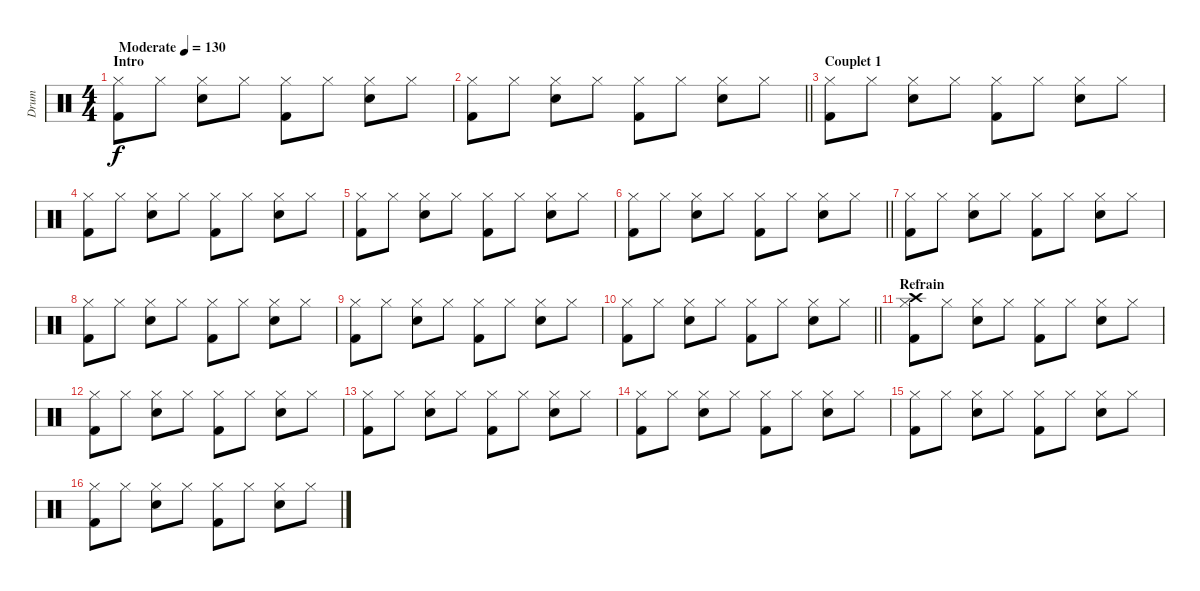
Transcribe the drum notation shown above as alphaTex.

\track ("Drum" "Drum") {instrument percussion}
\staff {score}
\articulation defaults
\ts (4 4)
\section ("" "Intro")
\tempo (130 "Moderate")
\clef neutral
\ks c
("Hi-Hat (closed)" "Kick (hit) 2").8{dy f} "Hi-Hat (closed)".8 ("Snare (hit) 2" "Hi-Hat (closed)").8 "Hi-Hat (closed)".8 ("Hi-Hat (closed)" "Kick (hit) 2").8 "Hi-Hat (closed)".8 ("Snare (hit) 2" "Hi-Hat (closed)").8 "Hi-Hat (closed)".8 |
\barLineRight lightlight
("Hi-Hat (closed)" "Kick (hit) 2").8 "Hi-Hat (closed)".8 ("Snare (hit) 2" "Hi-Hat (closed)").8 "Hi-Hat (closed)".8 ("Hi-Hat (closed)" "Kick (hit) 2").8 "Hi-Hat (closed)".8 ("Snare (hit) 2" "Hi-Hat (closed)").8 "Hi-Hat (closed)".8 |
\section ("" "Couplet 1")
("Hi-Hat (closed)" "Kick (hit) 2").8 "Hi-Hat (closed)".8 ("Snare (hit) 2" "Hi-Hat (closed)").8 "Hi-Hat (closed)".8 ("Hi-Hat (closed)" "Kick (hit) 2").8 "Hi-Hat (closed)".8 ("Snare (hit) 2" "Hi-Hat (closed)").8 "Hi-Hat (closed)".8 |
("Hi-Hat (closed)" "Kick (hit) 2").8 "Hi-Hat (closed)".8 ("Snare (hit) 2" "Hi-Hat (closed)").8 "Hi-Hat (closed)".8 ("Hi-Hat (closed)" "Kick (hit) 2").8 "Hi-Hat (closed)".8 ("Snare (hit) 2" "Hi-Hat (closed)").8 "Hi-Hat (closed)".8 |
("Hi-Hat (closed)" "Kick (hit) 2").8 "Hi-Hat (closed)".8 ("Snare (hit) 2" "Hi-Hat (closed)").8 "Hi-Hat (closed)".8 ("Hi-Hat (closed)" "Kick (hit) 2").8 "Hi-Hat (closed)".8 ("Snare (hit) 2" "Hi-Hat (closed)").8 "Hi-Hat (closed)".8 |
\barLineRight lightlight
("Hi-Hat (closed)" "Kick (hit) 2").8 "Hi-Hat (closed)".8 ("Snare (hit) 2" "Hi-Hat (closed)").8 "Hi-Hat (closed)".8 ("Hi-Hat (closed)" "Kick (hit) 2").8 "Hi-Hat (closed)".8 ("Snare (hit) 2" "Hi-Hat (closed)").8 "Hi-Hat (closed)".8 |
("Hi-Hat (closed)" "Kick (hit) 2").8 "Hi-Hat (closed)".8 ("Snare (hit) 2" "Hi-Hat (closed)").8 "Hi-Hat (closed)".8 ("Hi-Hat (closed)" "Kick (hit) 2").8 "Hi-Hat (closed)".8 ("Snare (hit) 2" "Hi-Hat (closed)").8 "Hi-Hat (closed)".8 |
("Hi-Hat (closed)" "Kick (hit) 2").8 "Hi-Hat (closed)".8 ("Snare (hit) 2" "Hi-Hat (closed)").8 "Hi-Hat (closed)".8 ("Hi-Hat (closed)" "Kick (hit) 2").8 "Hi-Hat (closed)".8 ("Snare (hit) 2" "Hi-Hat (closed)").8 "Hi-Hat (closed)".8 |
("Hi-Hat (closed)" "Kick (hit) 2").8 "Hi-Hat (closed)".8 ("Snare (hit) 2" "Hi-Hat (closed)").8 "Hi-Hat (closed)".8 ("Hi-Hat (closed)" "Kick (hit) 2").8 "Hi-Hat (closed)".8 ("Snare (hit) 2" "Hi-Hat (closed)").8 "Hi-Hat (closed)".8 |
\barLineRight lightlight
("Hi-Hat (closed)" "Kick (hit) 2").8 "Hi-Hat (closed)".8 ("Snare (hit) 2" "Hi-Hat (closed)").8 "Hi-Hat (closed)".8 ("Hi-Hat (closed)" "Kick (hit) 2").8 "Hi-Hat (closed)".8 ("Snare (hit) 2" "Hi-Hat (closed)").8 "Hi-Hat (closed)".8 |
\section ("" "Refrain")
("Crash high (hit)" "Hi-Hat (closed)" "Kick (hit) 2").8 "Hi-Hat (closed)".8 ("Snare (hit) 2" "Hi-Hat (closed)").8 "Hi-Hat (closed)".8 ("Hi-Hat (closed)" "Kick (hit) 2").8 "Hi-Hat (closed)".8 ("Snare (hit) 2" "Hi-Hat (closed)").8 "Hi-Hat (closed)".8 |
("Hi-Hat (closed)" "Kick (hit) 2").8 "Hi-Hat (closed)".8 ("Snare (hit) 2" "Hi-Hat (closed)").8 "Hi-Hat (closed)".8 ("Hi-Hat (closed)" "Kick (hit) 2").8 "Hi-Hat (closed)".8 ("Snare (hit) 2" "Hi-Hat (closed)").8 "Hi-Hat (closed)".8 |
("Hi-Hat (closed)" "Kick (hit) 2").8 "Hi-Hat (closed)".8 ("Snare (hit) 2" "Hi-Hat (closed)").8 "Hi-Hat (closed)".8 ("Hi-Hat (closed)" "Kick (hit) 2").8 "Hi-Hat (closed)".8 ("Snare (hit) 2" "Hi-Hat (closed)").8 "Hi-Hat (closed)".8 |
("Hi-Hat (closed)" "Kick (hit) 2").8 "Hi-Hat (closed)".8 ("Snare (hit) 2" "Hi-Hat (closed)").8 "Hi-Hat (closed)".8 ("Hi-Hat (closed)" "Kick (hit) 2").8 "Hi-Hat (closed)".8 ("Snare (hit) 2" "Hi-Hat (closed)").8 "Hi-Hat (closed)".8 |
("Hi-Hat (closed)" "Kick (hit) 2").8 "Hi-Hat (closed)".8 ("Snare (hit) 2" "Hi-Hat (closed)").8 "Hi-Hat (closed)".8 ("Hi-Hat (closed)" "Kick (hit) 2").8 "Hi-Hat (closed)".8 ("Snare (hit) 2" "Hi-Hat (closed)").8 "Hi-Hat (closed)".8 |
("Hi-Hat (closed)" "Kick (hit) 2").8 "Hi-Hat (closed)".8 ("Snare (hit) 2" "Hi-Hat (closed)").8 "Hi-Hat (closed)".8 ("Hi-Hat (closed)" "Kick (hit) 2").8 "Hi-Hat (closed)".8 ("Snare (hit) 2" "Hi-Hat (closed)").8 "Hi-Hat (closed)".8
